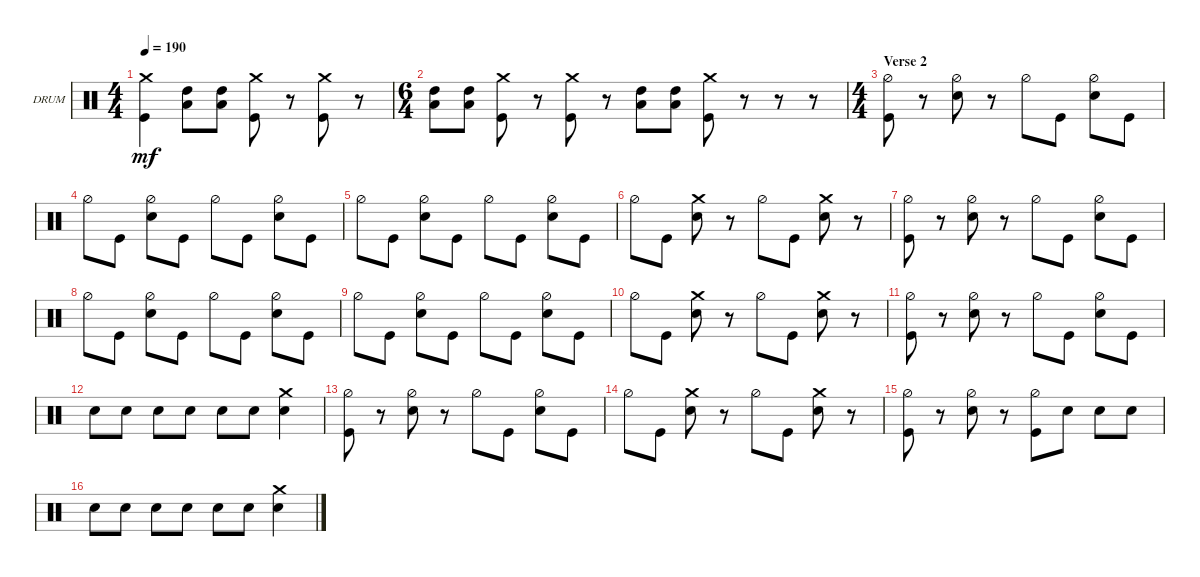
\defaultSystemsLayout 4
\bracketExtendMode groupsimilarinstruments
\firstSystemTrackNameOrientation horizontal
\otherSystemsTrackNameOrientation horizontal
\track ("Drums" "DRUM") {instrument percussion}
\staff {score}
\articulation defaults
\ts (4 4)
\tempo 190
\clef neutral
\ks c
("Kick (hit)" "Crash medium (hit)").4{dy mf} ("High Tom (hit)" "Low Tom (hit)").8 ("High Tom (hit)" "Low Tom (hit)").8 ("Kick (hit)" "Crash medium (hit)").8 r.8 ("Kick (hit)" "Crash medium (hit)").8 r.8 |
\ts (6 4)
("High Tom (hit)" "Low Tom (hit)").8 ("High Tom (hit)" "Low Tom (hit)").8 ("Kick (hit)" "Crash medium (hit)").8 r.8 ("Kick (hit)" "Crash medium (hit)").8 r.8 ("High Tom (hit)" "Low Tom (hit)").8 ("High Tom (hit)" "Low Tom (hit)").8 ("Kick (hit)" "Crash medium (hit)").8 r.8 r.8 r.8 |
\ts (4 4)
\section ("" "Verse 2")
("Kick (hit)" "Hi-Hat (half)").8 r.8 ("Snare (hit) 2" "Hi-Hat (half)").8 r.8 "Hi-Hat (half)".8 "Kick (hit)".8 ("Snare (hit) 2" "Hi-Hat (half)").8 "Kick (hit)".8 |
"Hi-Hat (half)".8 "Kick (hit)".8 ("Snare (hit) 2" "Hi-Hat (half)").8 "Kick (hit)".8 "Hi-Hat (half)".8 "Kick (hit)".8 ("Snare (hit) 2" "Hi-Hat (half)").8 "Kick (hit)".8 |
"Hi-Hat (half)".8 "Kick (hit)".8 ("Snare (hit) 2" "Hi-Hat (half)").8 "Kick (hit)".8 "Hi-Hat (half)".8 "Kick (hit)".8 ("Snare (hit) 2" "Hi-Hat (half)").8 "Kick (hit)".8 |
"Hi-Hat (half)".8 "Kick (hit)".8 ("Snare (hit) 2" "Crash medium (hit)").8 r.8 "Hi-Hat (half)".8 "Kick (hit)".8 ("Snare (hit) 2" "Crash medium (hit)").8 r.8 |
("Kick (hit)" "Hi-Hat (half)").8 r.8 ("Snare (hit) 2" "Hi-Hat (half)").8 r.8 "Hi-Hat (half)".8 "Kick (hit)".8 ("Snare (hit) 2" "Hi-Hat (half)").8 "Kick (hit)".8 |
"Hi-Hat (half)".8 "Kick (hit)".8 ("Snare (hit) 2" "Hi-Hat (half)").8 "Kick (hit)".8 "Hi-Hat (half)".8 "Kick (hit)".8 ("Snare (hit) 2" "Hi-Hat (half)").8 "Kick (hit)".8 |
"Hi-Hat (half)".8 "Kick (hit)".8 ("Snare (hit) 2" "Hi-Hat (half)").8 "Kick (hit)".8 "Hi-Hat (half)".8 "Kick (hit)".8 ("Snare (hit) 2" "Hi-Hat (half)").8 "Kick (hit)".8 |
"Hi-Hat (half)".8 "Kick (hit)".8 ("Snare (hit) 2" "Crash medium (hit)").8 r.8 "Hi-Hat (half)".8 "Kick (hit)".8 ("Snare (hit) 2" "Crash medium (hit)").8 r.8 |
("Kick (hit)" "Hi-Hat (half)").8 r.8 ("Snare (hit) 2" "Hi-Hat (half)").8 r.8 "Hi-Hat (half)".8 "Kick (hit)".8 ("Snare (hit) 2" "Hi-Hat (half)").8 "Kick (hit)".8 |
"Snare (hit) 2".8 "Snare (hit) 2".8 "Snare (hit) 2".8 "Snare (hit) 2".8 "Snare (hit) 2".8 "Snare (hit) 2".8 ("Snare (hit) 2" "Crash medium (hit)").4 |
("Kick (hit)" "Hi-Hat (half)").8 r.8 ("Snare (hit) 2" "Hi-Hat (half)").8 r.8 "Hi-Hat (half)".8 "Kick (hit)".8 ("Snare (hit) 2" "Hi-Hat (half)").8 "Kick (hit)".8 |
"Hi-Hat (half)".8 "Kick (hit)".8 ("Snare (hit) 2" "Crash medium (hit)").8 r.8 "Hi-Hat (half)".8 "Kick (hit)".8 ("Snare (hit) 2" "Crash medium (hit)").8 r.8 |
("Kick (hit)" "Hi-Hat (half)").8 r.8 ("Snare (hit) 2" "Hi-Hat (half)").8 r.8 ("Kick (hit)" "Hi-Hat (half)").8 "Snare (hit) 2".8 "Snare (hit) 2".8 "Snare (hit) 2".8 |
"Snare (hit) 2".8 "Snare (hit) 2".8 "Snare (hit) 2".8 "Snare (hit) 2".8 "Snare (hit) 2".8 "Snare (hit) 2".8 ("Snare (hit) 2" "Crash medium (hit)").4
